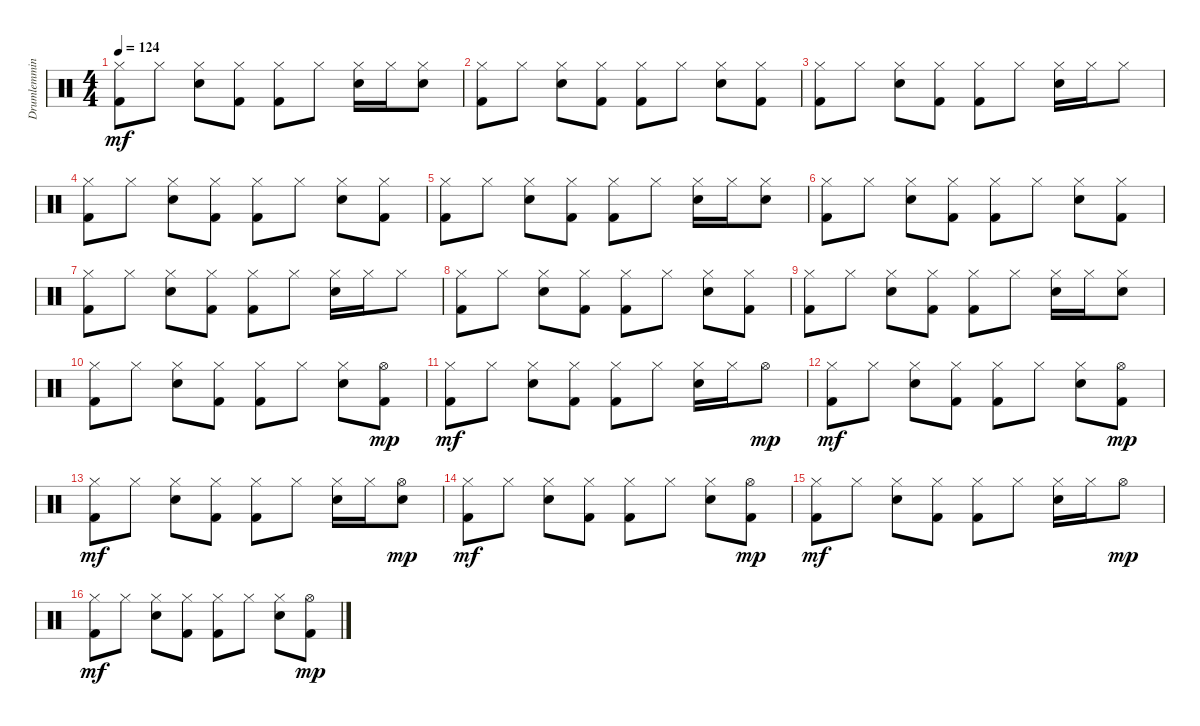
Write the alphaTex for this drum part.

\track ("Drumlemming" "Drumlemmin") {instrument percussion}
\staff {score}
\articulation defaults
\ts (4 4)
\tempo 124
\clef neutral
\ks c
("Hi-Hat (closed)" "Kick (hit) 2").8{dy mf} "Hi-Hat (closed)".8 ("Snare (hit) 2" "Hi-Hat (closed)").8 ("Hi-Hat (closed)" "Kick (hit) 2").8 ("Hi-Hat (closed)" "Kick (hit) 2").8 "Hi-Hat (closed)".8 ("Snare (hit) 2" "Hi-Hat (closed)").16 "Hi-Hat (closed)".16 ("Snare (hit) 2" "Hi-Hat (closed)").8 |
("Hi-Hat (closed)" "Kick (hit) 2").8 "Hi-Hat (closed)".8 ("Snare (hit) 2" "Hi-Hat (closed)").8 ("Hi-Hat (closed)" "Kick (hit) 2").8 ("Hi-Hat (closed)" "Kick (hit) 2").8 "Hi-Hat (closed)".8 ("Snare (hit) 2" "Hi-Hat (closed)").8 ("Hi-Hat (closed)" "Kick (hit) 2").8 |
("Hi-Hat (closed)" "Kick (hit) 2").8 "Hi-Hat (closed)".8 ("Snare (hit) 2" "Hi-Hat (closed)").8 ("Hi-Hat (closed)" "Kick (hit) 2").8 ("Hi-Hat (closed)" "Kick (hit) 2").8 "Hi-Hat (closed)".8 ("Snare (hit) 2" "Hi-Hat (closed)").16 "Hi-Hat (closed)".16 "Hi-Hat (closed)".8 |
("Hi-Hat (closed)" "Kick (hit) 2").8 "Hi-Hat (closed)".8 ("Snare (hit) 2" "Hi-Hat (closed)").8 ("Hi-Hat (closed)" "Kick (hit) 2").8 ("Hi-Hat (closed)" "Kick (hit) 2").8 "Hi-Hat (closed)".8 ("Snare (hit) 2" "Hi-Hat (closed)").8 ("Hi-Hat (closed)" "Kick (hit) 2").8 |
("Hi-Hat (closed)" "Kick (hit) 2").8 "Hi-Hat (closed)".8 ("Snare (hit) 2" "Hi-Hat (closed)").8 ("Hi-Hat (closed)" "Kick (hit) 2").8 ("Hi-Hat (closed)" "Kick (hit) 2").8 "Hi-Hat (closed)".8 ("Snare (hit) 2" "Hi-Hat (closed)").16 "Hi-Hat (closed)".16 ("Snare (hit) 2" "Hi-Hat (closed)").8 |
("Hi-Hat (closed)" "Kick (hit) 2").8 "Hi-Hat (closed)".8 ("Snare (hit) 2" "Hi-Hat (closed)").8 ("Hi-Hat (closed)" "Kick (hit) 2").8 ("Hi-Hat (closed)" "Kick (hit) 2").8 "Hi-Hat (closed)".8 ("Snare (hit) 2" "Hi-Hat (closed)").8 ("Hi-Hat (closed)" "Kick (hit) 2").8 |
("Hi-Hat (closed)" "Kick (hit) 2").8 "Hi-Hat (closed)".8 ("Snare (hit) 2" "Hi-Hat (closed)").8 ("Hi-Hat (closed)" "Kick (hit) 2").8 ("Hi-Hat (closed)" "Kick (hit) 2").8 "Hi-Hat (closed)".8 ("Snare (hit) 2" "Hi-Hat (closed)").16 "Hi-Hat (closed)".16 "Hi-Hat (closed)".8 |
("Hi-Hat (closed)" "Kick (hit) 2").8 "Hi-Hat (closed)".8 ("Snare (hit) 2" "Hi-Hat (closed)").8 ("Hi-Hat (closed)" "Kick (hit) 2").8 ("Hi-Hat (closed)" "Kick (hit) 2").8 "Hi-Hat (closed)".8 ("Snare (hit) 2" "Hi-Hat (closed)").8 ("Hi-Hat (closed)" "Kick (hit) 2").8 |
("Hi-Hat (closed)" "Kick (hit) 2").8 "Hi-Hat (closed)".8 ("Snare (hit) 2" "Hi-Hat (closed)").8 ("Hi-Hat (closed)" "Kick (hit) 2").8 ("Hi-Hat (closed)" "Kick (hit) 2").8 "Hi-Hat (closed)".8 ("Snare (hit) 2" "Hi-Hat (closed)").16 "Hi-Hat (closed)".16 ("Snare (hit) 2" "Hi-Hat (closed)").8 |
("Hi-Hat (closed)" "Kick (hit) 2").8 "Hi-Hat (closed)".8 ("Snare (hit) 2" "Hi-Hat (closed)").8 ("Hi-Hat (closed)" "Kick (hit) 2").8 ("Hi-Hat (closed)" "Kick (hit) 2").8 "Hi-Hat (closed)".8 ("Snare (hit) 2" "Hi-Hat (closed)").8 ("Hi-Hat (open)" "Kick (hit) 2").8{dy mp} |
("Hi-Hat (closed)" "Kick (hit) 2").8{dy mf} "Hi-Hat (closed)".8 ("Snare (hit) 2" "Hi-Hat (closed)").8 ("Hi-Hat (closed)" "Kick (hit) 2").8 ("Hi-Hat (closed)" "Kick (hit) 2").8 "Hi-Hat (closed)".8 ("Snare (hit) 2" "Hi-Hat (closed)").16 "Hi-Hat (closed)".16 "Hi-Hat (open)".8{dy mp} |
("Hi-Hat (closed)" "Kick (hit) 2").8{dy mf} "Hi-Hat (closed)".8 ("Snare (hit) 2" "Hi-Hat (closed)").8 ("Hi-Hat (closed)" "Kick (hit) 2").8 ("Hi-Hat (closed)" "Kick (hit) 2").8 "Hi-Hat (closed)".8 ("Snare (hit) 2" "Hi-Hat (closed)").8 ("Hi-Hat (open)" "Kick (hit) 2").8{dy mp} |
("Hi-Hat (closed)" "Kick (hit) 2").8{dy mf} "Hi-Hat (closed)".8 ("Snare (hit) 2" "Hi-Hat (closed)").8 ("Hi-Hat (closed)" "Kick (hit) 2").8 ("Hi-Hat (closed)" "Kick (hit) 2").8 "Hi-Hat (closed)".8 ("Snare (hit) 2" "Hi-Hat (closed)").16 "Hi-Hat (closed)".16 ("Snare (hit) 2" "Hi-Hat (open)").8{dy mp} |
("Hi-Hat (closed)" "Kick (hit) 2").8{dy mf} "Hi-Hat (closed)".8 ("Snare (hit) 2" "Hi-Hat (closed)").8 ("Hi-Hat (closed)" "Kick (hit) 2").8 ("Hi-Hat (closed)" "Kick (hit) 2").8 "Hi-Hat (closed)".8 ("Snare (hit) 2" "Hi-Hat (closed)").8 ("Hi-Hat (open)" "Kick (hit) 2").8{dy mp} |
("Hi-Hat (closed)" "Kick (hit) 2").8{dy mf} "Hi-Hat (closed)".8 ("Snare (hit) 2" "Hi-Hat (closed)").8 ("Hi-Hat (closed)" "Kick (hit) 2").8 ("Hi-Hat (closed)" "Kick (hit) 2").8 "Hi-Hat (closed)".8 ("Snare (hit) 2" "Hi-Hat (closed)").16 "Hi-Hat (closed)".16 "Hi-Hat (open)".8{dy mp} |
("Hi-Hat (closed)" "Kick (hit) 2").8{dy mf} "Hi-Hat (closed)".8 ("Snare (hit) 2" "Hi-Hat (closed)").8 ("Hi-Hat (closed)" "Kick (hit) 2").8 ("Hi-Hat (closed)" "Kick (hit) 2").8 "Hi-Hat (closed)".8 ("Snare (hit) 2" "Hi-Hat (closed)").8 ("Hi-Hat (open)" "Kick (hit) 2").8{dy mp}
